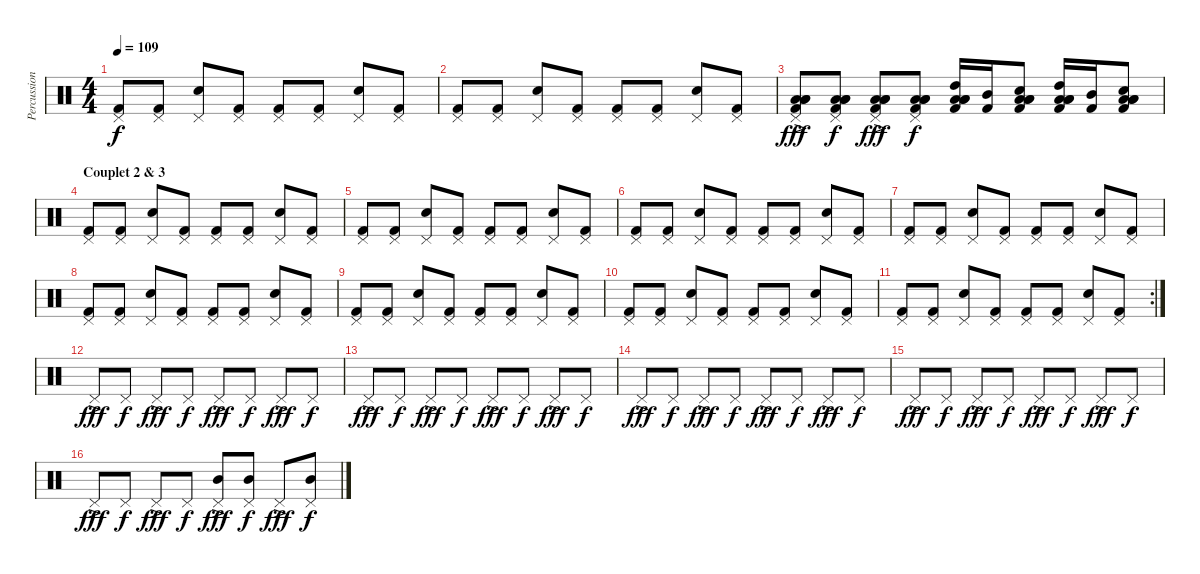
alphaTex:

\track ("Percussions" "Percussion") {instrument percussion}
\staff {score}
\articulation defaults
\ts (4 4)
\tempo 109
\clef neutral
\ks c
("Pedal Hi-Hat (hit)" "Kick (hit) 2").8{dy f} ("Pedal Hi-Hat (hit)" "Kick (hit) 2").8 ("Pedal Hi-Hat (hit)" "Snare (hit) 2").8 ("Pedal Hi-Hat (hit)" "Kick (hit) 2").8 ("Pedal Hi-Hat (hit)" "Kick (hit) 2").8 ("Pedal Hi-Hat (hit)" "Kick (hit) 2").8 ("Pedal Hi-Hat (hit)" "Snare (hit) 2").8 ("Pedal Hi-Hat (hit)" "Kick (hit) 2").8 |
("Pedal Hi-Hat (hit)" "Kick (hit) 2").8 ("Pedal Hi-Hat (hit)" "Kick (hit) 2").8 ("Pedal Hi-Hat (hit)" "Snare (hit) 2").8 ("Pedal Hi-Hat (hit)" "Kick (hit) 2").8 ("Pedal Hi-Hat (hit)" "Kick (hit) 2").8 ("Pedal Hi-Hat (hit)" "Kick (hit) 2").8 ("Pedal Hi-Hat (hit)" "Snare (hit) 2").8 ("Pedal Hi-Hat (hit)" "Kick (hit) 2").8 |
("Pedal Hi-Hat (hit)"{ac} "Kick (hit) 2" "Low Floor Tom (hit)" "Low Floor Tom (hit)" "Low Floor Tom (hit)").8{dy fff} ("Pedal Hi-Hat (hit)" "Kick (hit) 2" "Low Floor Tom (hit)" "Low Floor Tom (hit)" "Low Floor Tom (hit)").8{dy f} ("Pedal Hi-Hat (hit)"{ac} "Kick (hit) 2" "Low Floor Tom (hit)" "Low Floor Tom (hit)" "Low Floor Tom (hit)").8{dy fff} ("Pedal Hi-Hat (hit)" "Kick (hit) 2" "Low Floor Tom (hit)" "Low Floor Tom (hit)" "Low Floor Tom (hit)").8{dy f} ("High Tom (hit)" "Kick (hit) 2" "Low Floor Tom (hit)" "Low Floor Tom (hit)" "Low Floor Tom (hit)").16 ("Mid Tom (hit)" "Kick (hit) 2").16 ("Snare (hit) 2" "Kick (hit) 2" "Low Floor Tom (hit)" "Low Floor Tom (hit)" "Low Floor Tom (hit)").8 ("High Tom (hit)" "Kick (hit) 2" "Low Floor Tom (hit)" "Low Floor Tom (hit)" "Low Floor Tom (hit)").16 ("Mid Tom (hit)" "Kick (hit) 2").16 ("Snare (hit) 2" "Kick (hit) 2" "Low Floor Tom (hit)" "Low Floor Tom (hit)" "Low Floor Tom (hit)").8 |
\section ("" "Couplet 2 & 3")
("Pedal Hi-Hat (hit)" "Kick (hit) 2").8 ("Pedal Hi-Hat (hit)" "Kick (hit) 2").8 ("Pedal Hi-Hat (hit)" "Snare (hit) 2").8 ("Pedal Hi-Hat (hit)" "Kick (hit) 2").8 ("Pedal Hi-Hat (hit)" "Kick (hit) 2").8 ("Pedal Hi-Hat (hit)" "Kick (hit) 2").8 ("Pedal Hi-Hat (hit)" "Snare (hit) 2").8 ("Pedal Hi-Hat (hit)" "Kick (hit) 2").8 |
("Pedal Hi-Hat (hit)" "Kick (hit) 2").8 ("Pedal Hi-Hat (hit)" "Kick (hit) 2").8 ("Pedal Hi-Hat (hit)" "Snare (hit) 2").8 ("Pedal Hi-Hat (hit)" "Kick (hit) 2").8 ("Pedal Hi-Hat (hit)" "Kick (hit) 2").8 ("Pedal Hi-Hat (hit)" "Kick (hit) 2").8 ("Pedal Hi-Hat (hit)" "Snare (hit) 2").8 ("Pedal Hi-Hat (hit)" "Kick (hit) 2").8 |
("Pedal Hi-Hat (hit)" "Kick (hit) 2").8 ("Pedal Hi-Hat (hit)" "Kick (hit) 2").8 ("Pedal Hi-Hat (hit)" "Snare (hit) 2").8 ("Pedal Hi-Hat (hit)" "Kick (hit) 2").8 ("Pedal Hi-Hat (hit)" "Kick (hit) 2").8 ("Pedal Hi-Hat (hit)" "Kick (hit) 2").8 ("Pedal Hi-Hat (hit)" "Snare (hit) 2").8 ("Pedal Hi-Hat (hit)" "Kick (hit) 2").8 |
("Pedal Hi-Hat (hit)" "Kick (hit) 2").8 ("Pedal Hi-Hat (hit)" "Kick (hit) 2").8 ("Pedal Hi-Hat (hit)" "Snare (hit) 2").8 ("Pedal Hi-Hat (hit)" "Kick (hit) 2").8 ("Pedal Hi-Hat (hit)" "Kick (hit) 2").8 ("Pedal Hi-Hat (hit)" "Kick (hit) 2").8 ("Pedal Hi-Hat (hit)" "Snare (hit) 2").8 ("Pedal Hi-Hat (hit)" "Kick (hit) 2").8 |
("Pedal Hi-Hat (hit)" "Kick (hit) 2").8 ("Pedal Hi-Hat (hit)" "Kick (hit) 2").8 ("Pedal Hi-Hat (hit)" "Snare (hit) 2").8 ("Pedal Hi-Hat (hit)" "Kick (hit) 2").8 ("Pedal Hi-Hat (hit)" "Kick (hit) 2").8 ("Pedal Hi-Hat (hit)" "Kick (hit) 2").8 ("Pedal Hi-Hat (hit)" "Snare (hit) 2").8 ("Pedal Hi-Hat (hit)" "Kick (hit) 2").8 |
("Pedal Hi-Hat (hit)" "Kick (hit) 2").8 ("Pedal Hi-Hat (hit)" "Kick (hit) 2").8 ("Pedal Hi-Hat (hit)" "Snare (hit) 2").8 ("Pedal Hi-Hat (hit)" "Kick (hit) 2").8 ("Pedal Hi-Hat (hit)" "Kick (hit) 2").8 ("Pedal Hi-Hat (hit)" "Kick (hit) 2").8 ("Pedal Hi-Hat (hit)" "Snare (hit) 2").8 ("Pedal Hi-Hat (hit)" "Kick (hit) 2").8 |
("Pedal Hi-Hat (hit)" "Kick (hit) 2").8 ("Pedal Hi-Hat (hit)" "Kick (hit) 2").8 ("Pedal Hi-Hat (hit)" "Snare (hit) 2").8 ("Pedal Hi-Hat (hit)" "Kick (hit) 2").8 ("Pedal Hi-Hat (hit)" "Kick (hit) 2").8 ("Pedal Hi-Hat (hit)" "Kick (hit) 2").8 ("Pedal Hi-Hat (hit)" "Snare (hit) 2").8 ("Pedal Hi-Hat (hit)" "Kick (hit) 2").8 |
\rc 2
("Pedal Hi-Hat (hit)" "Kick (hit) 2").8 ("Pedal Hi-Hat (hit)" "Kick (hit) 2").8 ("Pedal Hi-Hat (hit)" "Snare (hit) 2").8 ("Pedal Hi-Hat (hit)" "Kick (hit) 2").8 ("Pedal Hi-Hat (hit)" "Kick (hit) 2").8 ("Pedal Hi-Hat (hit)" "Kick (hit) 2").8 ("Pedal Hi-Hat (hit)" "Snare (hit) 2").8 ("Pedal Hi-Hat (hit)" "Kick (hit) 2").8 |
"Pedal Hi-Hat (hit)"{ac}.8{dy fff} "Pedal Hi-Hat (hit)".8{dy f} "Pedal Hi-Hat (hit)"{ac}.8{dy fff} "Pedal Hi-Hat (hit)".8{dy f} "Pedal Hi-Hat (hit)"{ac}.8{dy fff} "Pedal Hi-Hat (hit)".8{dy f} "Pedal Hi-Hat (hit)"{ac}.8{dy fff} "Pedal Hi-Hat (hit)".8{dy f} |
"Pedal Hi-Hat (hit)"{ac}.8{dy fff} "Pedal Hi-Hat (hit)".8{dy f} "Pedal Hi-Hat (hit)"{ac}.8{dy fff} "Pedal Hi-Hat (hit)".8{dy f} "Pedal Hi-Hat (hit)"{ac}.8{dy fff} "Pedal Hi-Hat (hit)".8{dy f} "Pedal Hi-Hat (hit)"{ac}.8{dy fff} "Pedal Hi-Hat (hit)".8{dy f} |
"Pedal Hi-Hat (hit)"{ac}.8{dy fff} "Pedal Hi-Hat (hit)".8{dy f} "Pedal Hi-Hat (hit)"{ac}.8{dy fff} "Pedal Hi-Hat (hit)".8{dy f} "Pedal Hi-Hat (hit)"{ac}.8{dy fff} "Pedal Hi-Hat (hit)".8{dy f} "Pedal Hi-Hat (hit)"{ac}.8{dy fff} "Pedal Hi-Hat (hit)".8{dy f} |
"Pedal Hi-Hat (hit)"{ac}.8{dy fff} "Pedal Hi-Hat (hit)".8{dy f} "Pedal Hi-Hat (hit)"{ac}.8{dy fff} "Pedal Hi-Hat (hit)".8{dy f} "Pedal Hi-Hat (hit)"{ac}.8{dy fff} "Pedal Hi-Hat (hit)".8{dy f} "Pedal Hi-Hat (hit)"{ac}.8{dy fff} "Pedal Hi-Hat (hit)".8{dy f} |
"Pedal Hi-Hat (hit)"{ac}.8{dy fff} "Pedal Hi-Hat (hit)".8{dy f} "Pedal Hi-Hat (hit)"{ac}.8{dy fff} "Pedal Hi-Hat (hit)".8{dy f} ("Pedal Hi-Hat (hit)"{ac} "Mid Tom (hit)").8{dy fff} ("Pedal Hi-Hat (hit)" "Mid Tom (hit)").8{dy f} "Pedal Hi-Hat (hit)"{ac}.8{dy fff} ("Pedal Hi-Hat (hit)" "Mid Tom (hit)").8{dy f}
